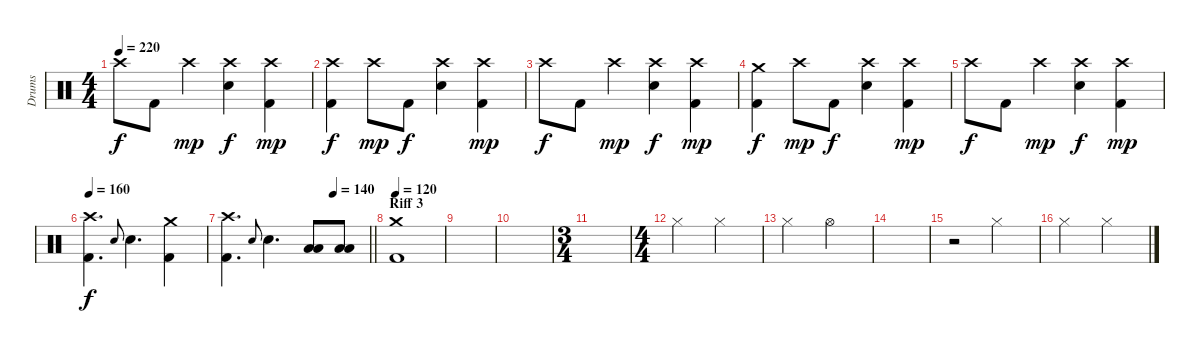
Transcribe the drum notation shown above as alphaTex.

\track ("Drums" "Drums") {instrument percussion}
\staff {score}
\articulation defaults
\ts (4 4)
\tempo 220
\clef neutral
\ks c "Crash high (hit)".8{dy f} "Kick (hit) 2".8 "Crash high (hit)".4{dy mp}
("Electric Snare (hit)" "Crash high (hit)").4{dy f} ("Kick (hit) 2" "Crash high (hit)").4{dy mp} |
("Kick (hit) 2" "Crash high (hit)").4{dy f} "Crash high (hit)".8{dy mp} "Kick (hit) 2".8{dy f} ("Crash high (hit)" "Electric Snare (hit)").4 ("Crash high (hit)" "Kick (hit) 2").4{dy mp} |
"Crash high (hit)".8{dy f} "Kick (hit) 2".8 "Crash high (hit)".4{dy mp} ("Electric Snare (hit)" "Crash high (hit)").4{dy f} ("Kick (hit) 2" "Crash high (hit)").4{dy mp} |
("Kick (hit) 2" "Crash medium (hit)").4{dy f} "Crash high (hit)".8{dy mp} "Kick (hit) 2".8{dy f} ("Crash high (hit)" "Electric Snare (hit)").4 ("Crash high (hit)" "Kick (hit) 2").4{dy mp} |
"Crash high (hit)".8{dy f} "Kick (hit) 2".8 "Crash high (hit)".4{dy mp} ("Electric Snare (hit)" "Crash high (hit)").4{dy f} ("Kick (hit) 2" "Crash high (hit)").4{dy mp} |
\tempo 160
("Crash high (hit)" "Kick (hit) 2").4{d dy f} "Electric Snare (hit)".8{gr onbeat} "Electric Snare (hit)".4{d} ("Kick (hit) 2" "Crash medium (hit)").4 |
\tempo (140 0.75)
\barLineRight lightlight
("Crash high (hit)" "Kick (hit) 2").4{d} "Electric Snare (hit)".8{gr onbeat} "Electric Snare (hit)".4{d} ("Low Tom (hit)" "Low Floor Tom (hit)").8 ("Low Tom (hit)" "Low Floor Tom (hit)").8 |
\section ("" "Riff 3")
\tempo 120
("Crash medium (hit)" "Kick (hit) 2").1 |
|
|
\ts (3 4)
|
\ts (4 4)
"Hi-Hat (closed)".2 "Hi-Hat (closed)".2 |
"Hi-Hat (closed)".2 "Hi-Hat (open)".2 |
|
r.2 "Hi-Hat (closed)".2 |
"Hi-Hat (closed)".2 "Hi-Hat (closed)".2
